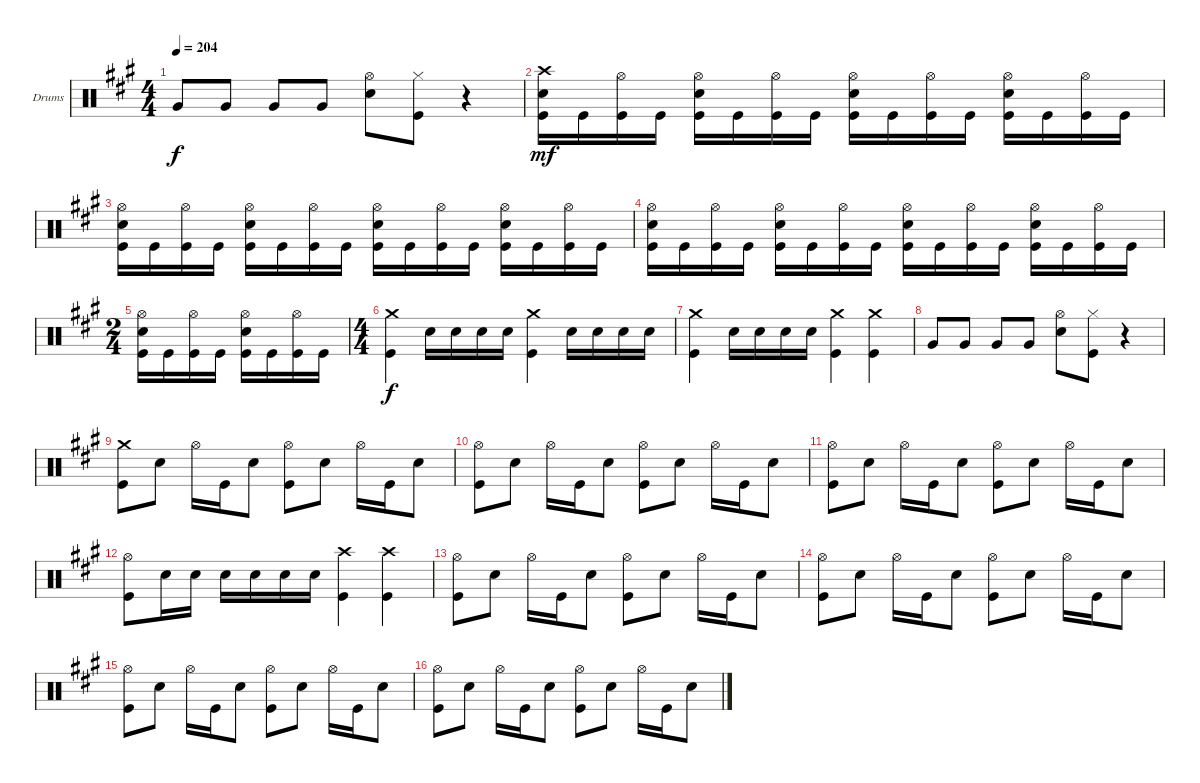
\bracketExtendMode groupsimilarinstruments
\firstSystemTrackNameOrientation horizontal
\otherSystemsTrackNameOrientation horizontal
\track ("Drumkit" "Drums") {instrument percussion}
\staff {score}
\articulation defaults
\ts (4 4)
\tempo 204
\clef neutral
\ks a "Very Low Tom (hit)".8{dy f} "Very Low Tom (hit)".8 "Very Low Tom (hit)".8 "Very Low Tom (hit)".8
("Hi-Hat (open)" "Snare (hit) 2").8 ("Hi-Hat (closed)" "Kick (hit)").8 r.4 |
("Kick (hit)" "Snare (hit) 2" "Crash high (hit)").16{dy mf} "Kick (hit)".16 ("Kick (hit)" "Hi-Hat (open)").16 "Kick (hit)".16 ("Kick (hit)" "Snare (hit) 2" "Hi-Hat (open)").16 "Kick (hit)".16 ("Kick (hit)" "Hi-Hat (open)").16 "Kick (hit)".16 ("Kick (hit)" "Snare (hit) 2" "Hi-Hat (open)").16 "Kick (hit)".16 ("Kick (hit)" "Hi-Hat (open)").16 "Kick (hit)".16 ("Kick (hit)" "Snare (hit) 2" "Hi-Hat (open)").16 "Kick (hit)".16 ("Kick (hit)" "Hi-Hat (open)").16 "Kick (hit)".16 |
("Kick (hit)" "Snare (hit) 2" "Hi-Hat (open)").16 "Kick (hit)".16 ("Kick (hit)" "Hi-Hat (open)").16 "Kick (hit)".16 ("Kick (hit)" "Snare (hit) 2" "Hi-Hat (open)").16 "Kick (hit)".16 ("Kick (hit)" "Hi-Hat (open)").16 "Kick (hit)".16 ("Kick (hit)" "Snare (hit) 2" "Hi-Hat (open)").16 "Kick (hit)".16 ("Kick (hit)" "Hi-Hat (open)").16 "Kick (hit)".16 ("Kick (hit)" "Snare (hit) 2" "Hi-Hat (open)").16 "Kick (hit)".16 ("Kick (hit)" "Hi-Hat (open)").16 "Kick (hit)".16 |
("Kick (hit)" "Snare (hit) 2" "Hi-Hat (open)").16 "Kick (hit)".16 ("Kick (hit)" "Hi-Hat (open)").16 "Kick (hit)".16 ("Kick (hit)" "Snare (hit) 2" "Hi-Hat (open)").16 "Kick (hit)".16 ("Kick (hit)" "Hi-Hat (open)").16 "Kick (hit)".16 ("Kick (hit)" "Snare (hit) 2" "Hi-Hat (open)").16 "Kick (hit)".16 ("Kick (hit)" "Hi-Hat (open)").16 "Kick (hit)".16 ("Kick (hit)" "Snare (hit) 2" "Hi-Hat (open)").16 "Kick (hit)".16 ("Kick (hit)" "Hi-Hat (open)").16 "Kick (hit)".16 |
\ts (2 4)
("Kick (hit)" "Snare (hit) 2" "Hi-Hat (open)").16 "Kick (hit)".16 ("Kick (hit)" "Hi-Hat (open)").16 "Kick (hit)".16 ("Kick (hit)" "Snare (hit) 2" "Hi-Hat (open)").16 "Kick (hit)".16 ("Kick (hit)" "Hi-Hat (open)").16 "Kick (hit)".16 |
\ts (4 4)
("Crash medium (hit)" "Kick (hit)").4{dy f} "Snare (hit) 2".16 "Snare (hit) 2".16 "Snare (hit) 2".16 "Snare (hit) 2".16 ("Crash medium (hit)" "Kick (hit)").4 "Snare (hit) 2".16 "Snare (hit) 2".16 "Snare (hit) 2".16 "Snare (hit) 2".16 |
("Crash medium (hit)" "Kick (hit)").4 "Snare (hit) 2".16 "Snare (hit) 2".16 "Snare (hit) 2".16 "Snare (hit) 2".16 ("Crash medium (hit)" "Kick (hit)").4 ("Crash medium (hit)" "Kick (hit)").4 |
"Very Low Tom (hit)".8 "Very Low Tom (hit)".8 "Very Low Tom (hit)".8 "Very Low Tom (hit)".8 ("Hi-Hat (open)" "Snare (hit) 2").8 ("Hi-Hat (closed)" "Kick (hit)").8 r.4 |
("Crash medium (hit)" "Kick (hit)").8 "Snare (hit) 2".8 "Hi-Hat (open)".16 "Kick (hit)".16 "Snare (hit) 2".8 ("Hi-Hat (open)" "Kick (hit)").8 "Snare (hit) 2".8 "Hi-Hat (open)".16 "Kick (hit)".16 "Snare (hit) 2".8 |
("Hi-Hat (open)" "Kick (hit)").8 "Snare (hit) 2".8 "Hi-Hat (open)".16 "Kick (hit)".16 "Snare (hit) 2".8 ("Hi-Hat (open)" "Kick (hit)").8 "Snare (hit) 2".8 "Hi-Hat (open)".16 "Kick (hit)".16 "Snare (hit) 2".8 |
("Hi-Hat (open)" "Kick (hit)").8 "Snare (hit) 2".8 "Hi-Hat (open)".16 "Kick (hit)".16 "Snare (hit) 2".8 ("Hi-Hat (open)" "Kick (hit)").8 "Snare (hit) 2".8 "Hi-Hat (open)".16 "Kick (hit)".16 "Snare (hit) 2".8 |
("Hi-Hat (open)" "Kick (hit)").8 "Snare (hit) 2".16 "Snare (hit) 2".16 "Snare (hit) 2".16 "Snare (hit) 2".16 "Snare (hit) 2".16 "Snare (hit) 2".16 ("Crash high (hit)" "Kick (hit)").4 ("Crash high (hit)" "Kick (hit)").4 |
("Hi-Hat (open)" "Kick (hit)").8 "Snare (hit) 2".8 "Hi-Hat (open)".16 "Kick (hit)".16 "Snare (hit) 2".8 ("Hi-Hat (open)" "Kick (hit)").8 "Snare (hit) 2".8 "Hi-Hat (open)".16 "Kick (hit)".16 "Snare (hit) 2".8 |
("Hi-Hat (open)" "Kick (hit)").8 "Snare (hit) 2".8 "Hi-Hat (open)".16 "Kick (hit)".16 "Snare (hit) 2".8 ("Hi-Hat (open)" "Kick (hit)").8 "Snare (hit) 2".8 "Hi-Hat (open)".16 "Kick (hit)".16 "Snare (hit) 2".8 |
("Hi-Hat (open)" "Kick (hit)").8 "Snare (hit) 2".8 "Hi-Hat (open)".16 "Kick (hit)".16 "Snare (hit) 2".8 ("Hi-Hat (open)" "Kick (hit)").8 "Snare (hit) 2".8 "Hi-Hat (open)".16 "Kick (hit)".16 "Snare (hit) 2".8 |
("Hi-Hat (open)" "Kick (hit)").8 "Snare (hit) 2".8 "Hi-Hat (open)".16 "Kick (hit)".16 "Snare (hit) 2".8 ("Hi-Hat (open)" "Kick (hit)").8 "Snare (hit) 2".8 "Hi-Hat (open)".16 "Kick (hit)".16 "Snare (hit) 2".8
